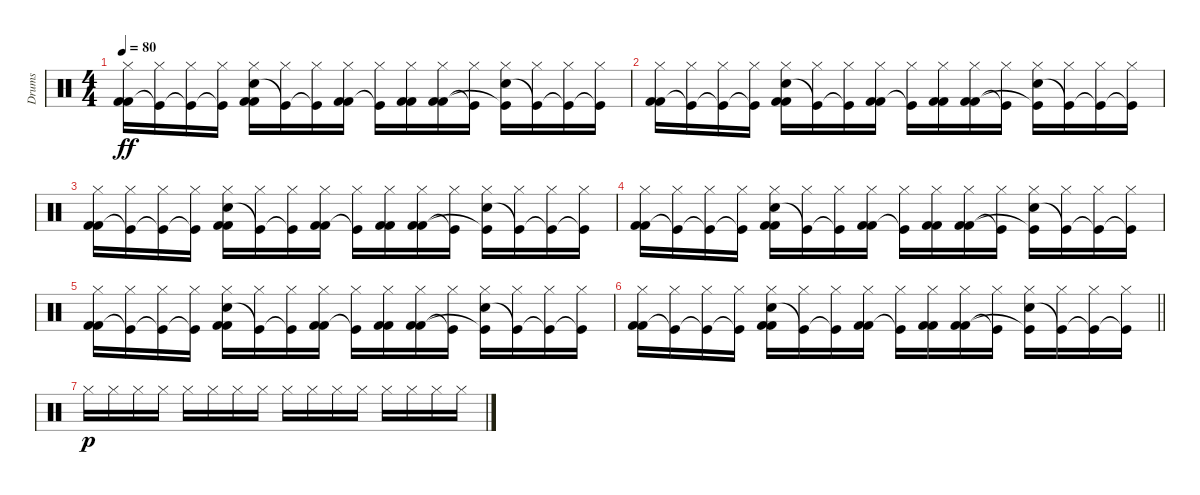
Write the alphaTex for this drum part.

\track ("Drums" "Drums") {instrument percussion}
\staff {score}
\articulation defaults
\ts (4 4)
\tempo 80
\clef neutral
\ks c
("Hi-Hat (closed)" "Kick (hit) 2" "Kick (hit) 2").16{dy ff} ("Hi-Hat (closed)" "Kick (hit)"{t}).16 ("Hi-Hat (closed)" "Kick (hit)"{t}).16 ("Hi-Hat (closed)" "Kick (hit)"{t}).16 ("Hi-Hat (closed)" "Electric Snare (hit)" "Kick (hit) 2" "Kick (hit) 2").16 ("Hi-Hat (closed)" "Kick (hit)"{t}).16 ("Hi-Hat (closed)" "Kick (hit)"{t}).16 ("Hi-Hat (closed)" "Kick (hit) 2" "Kick (hit) 2").16 ("Hi-Hat (closed)" "Kick (hit)"{t}).16 ("Hi-Hat (closed)" "Kick (hit) 2" "Kick (hit) 2").16 ("Hi-Hat (closed)" "Kick (hit) 2" "Kick (hit) 2").16 ("Hi-Hat (closed)" "Kick (hit)"{t}).16 ("Hi-Hat (closed)" "Electric Snare (hit)" "Kick (hit)"{t}).16 ("Hi-Hat (closed)" "Kick (hit)"{t}).16 ("Hi-Hat (closed)" "Kick (hit)"{t}).16 ("Hi-Hat (closed)" "Kick (hit)"{t}).16 |
("Hi-Hat (closed)" "Kick (hit) 2" "Kick (hit) 2").16 ("Hi-Hat (closed)" "Kick (hit)"{t}).16 ("Hi-Hat (closed)" "Kick (hit)"{t}).16 ("Hi-Hat (closed)" "Kick (hit)"{t}).16 ("Hi-Hat (closed)" "Electric Snare (hit)" "Kick (hit) 2" "Kick (hit) 2").16 ("Hi-Hat (closed)" "Kick (hit)"{t}).16 ("Hi-Hat (closed)" "Kick (hit)"{t}).16 ("Hi-Hat (closed)" "Kick (hit) 2" "Kick (hit) 2").16 ("Hi-Hat (closed)" "Kick (hit)"{t}).16 ("Hi-Hat (closed)" "Kick (hit) 2" "Kick (hit) 2").16 ("Hi-Hat (closed)" "Kick (hit) 2" "Kick (hit) 2").16 ("Hi-Hat (closed)" "Kick (hit)"{t}).16 ("Hi-Hat (closed)" "Electric Snare (hit)" "Kick (hit)"{t}).16 ("Hi-Hat (closed)" "Kick (hit)"{t}).16 ("Hi-Hat (closed)" "Kick (hit)"{t}).16 ("Hi-Hat (closed)" "Kick (hit)"{t}).16 |
("Hi-Hat (closed)" "Kick (hit) 2" "Kick (hit) 2").16 ("Hi-Hat (closed)" "Kick (hit)"{t}).16 ("Hi-Hat (closed)" "Kick (hit)"{t}).16 ("Hi-Hat (closed)" "Kick (hit)"{t}).16 ("Hi-Hat (closed)" "Electric Snare (hit)" "Kick (hit) 2" "Kick (hit) 2").16 ("Hi-Hat (closed)" "Kick (hit)"{t}).16 ("Hi-Hat (closed)" "Kick (hit)"{t}).16 ("Hi-Hat (closed)" "Kick (hit) 2" "Kick (hit) 2").16 ("Hi-Hat (closed)" "Kick (hit)"{t}).16 ("Hi-Hat (closed)" "Kick (hit) 2" "Kick (hit) 2").16 ("Hi-Hat (closed)" "Kick (hit) 2" "Kick (hit) 2").16 ("Hi-Hat (closed)" "Kick (hit)"{t}).16 ("Hi-Hat (closed)" "Electric Snare (hit)" "Kick (hit)"{t}).16 ("Hi-Hat (closed)" "Kick (hit)"{t}).16 ("Hi-Hat (closed)" "Kick (hit)"{t}).16 ("Hi-Hat (closed)" "Kick (hit)"{t}).16 |
("Hi-Hat (closed)" "Kick (hit) 2" "Kick (hit) 2").16 ("Hi-Hat (closed)" "Kick (hit)"{t}).16 ("Hi-Hat (closed)" "Kick (hit)"{t}).16 ("Hi-Hat (closed)" "Kick (hit)"{t}).16 ("Hi-Hat (closed)" "Electric Snare (hit)" "Kick (hit) 2" "Kick (hit) 2").16 ("Hi-Hat (closed)" "Kick (hit)"{t}).16 ("Hi-Hat (closed)" "Kick (hit)"{t}).16 ("Hi-Hat (closed)" "Kick (hit) 2" "Kick (hit) 2").16 ("Hi-Hat (closed)" "Kick (hit)"{t}).16 ("Hi-Hat (closed)" "Kick (hit) 2" "Kick (hit) 2").16 ("Hi-Hat (closed)" "Kick (hit) 2" "Kick (hit) 2").16 ("Hi-Hat (closed)" "Kick (hit)"{t}).16 ("Hi-Hat (closed)" "Electric Snare (hit)" "Kick (hit)"{t}).16 ("Hi-Hat (closed)" "Kick (hit)"{t}).16 ("Hi-Hat (closed)" "Kick (hit)"{t}).16 ("Hi-Hat (closed)" "Kick (hit)"{t}).16 |
("Hi-Hat (closed)" "Kick (hit) 2" "Kick (hit) 2").16 ("Hi-Hat (closed)" "Kick (hit)"{t}).16 ("Hi-Hat (closed)" "Kick (hit)"{t}).16 ("Hi-Hat (closed)" "Kick (hit)"{t}).16 ("Hi-Hat (closed)" "Electric Snare (hit)" "Kick (hit) 2" "Kick (hit) 2").16 ("Hi-Hat (closed)" "Kick (hit)"{t}).16 ("Hi-Hat (closed)" "Kick (hit)"{t}).16 ("Hi-Hat (closed)" "Kick (hit) 2" "Kick (hit) 2").16 ("Hi-Hat (closed)" "Kick (hit)"{t}).16 ("Hi-Hat (closed)" "Kick (hit) 2" "Kick (hit) 2").16 ("Hi-Hat (closed)" "Kick (hit) 2" "Kick (hit) 2").16 ("Hi-Hat (closed)" "Kick (hit)"{t}).16 ("Hi-Hat (closed)" "Electric Snare (hit)" "Kick (hit)"{t}).16 ("Hi-Hat (closed)" "Kick (hit)"{t}).16 ("Hi-Hat (closed)" "Kick (hit)"{t}).16 ("Hi-Hat (closed)" "Kick (hit)"{t}).16 |
\barLineRight lightlight
("Hi-Hat (closed)" "Kick (hit) 2" "Kick (hit) 2").16 ("Hi-Hat (closed)" "Kick (hit)"{t}).16 ("Hi-Hat (closed)" "Kick (hit)"{t}).16 ("Hi-Hat (closed)" "Kick (hit)"{t}).16 ("Hi-Hat (closed)" "Electric Snare (hit)" "Kick (hit) 2" "Kick (hit) 2").16 ("Hi-Hat (closed)" "Kick (hit)"{t}).16 ("Hi-Hat (closed)" "Kick (hit)"{t}).16 ("Hi-Hat (closed)" "Kick (hit) 2" "Kick (hit) 2").16 ("Hi-Hat (closed)" "Kick (hit)"{t}).16 ("Hi-Hat (closed)" "Kick (hit) 2" "Kick (hit) 2").16 ("Hi-Hat (closed)" "Kick (hit) 2" "Kick (hit) 2").16 ("Hi-Hat (closed)" "Kick (hit)"{t}).16 ("Hi-Hat (closed)" "Electric Snare (hit)" "Kick (hit)"{t}).16 ("Hi-Hat (closed)" "Kick (hit)"{t}).16 ("Hi-Hat (closed)" "Kick (hit)"{t}).16 ("Hi-Hat (closed)" "Kick (hit)"{t}).16 |
"Hi-Hat (closed)".16{dy p} "Hi-Hat (closed)".16 "Hi-Hat (closed)".16 "Hi-Hat (closed)".16 "Hi-Hat (closed)".16 "Hi-Hat (closed)".16 "Hi-Hat (closed)".16 "Hi-Hat (closed)".16 "Hi-Hat (closed)".16 "Hi-Hat (closed)".16 "Hi-Hat (closed)".16 "Hi-Hat (closed)".16 "Hi-Hat (closed)".16 "Hi-Hat (closed)".16 "Hi-Hat (closed)".16 "Hi-Hat (closed)".16
